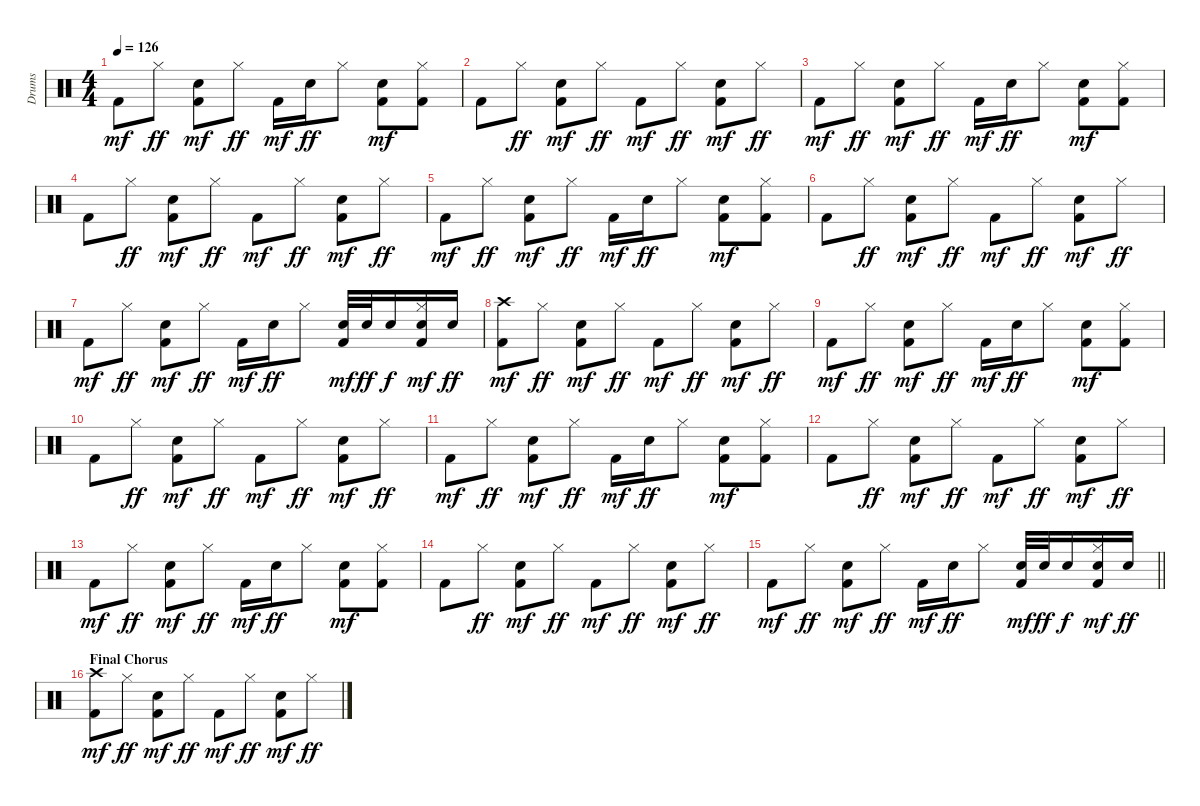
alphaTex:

\track ("Drums" "Drums") {instrument percussion}
\staff {score}
\articulation defaults
\ts (4 4)
\tempo 126
\clef neutral
\ks c "Kick (hit) 2".8{dy mf} "Hi-Hat (closed)".8{dy ff}
("Electric Snare (hit)" "Kick (hit) 2").8{dy mf} "Hi-Hat (closed)".8{dy ff} "Kick (hit) 2".16{dy mf} "Electric Snare (hit)".16{dy ff} "Hi-Hat (closed)".8 ("Electric Snare (hit)" "Kick (hit) 2").8{dy mf} ("Hi-Hat (closed)" "Kick (hit) 2").8 |
"Kick (hit) 2".8 "Hi-Hat (closed)".8{dy ff} ("Electric Snare (hit)" "Kick (hit) 2").8{dy mf} "Hi-Hat (closed)".8{dy ff} "Kick (hit) 2".8{dy mf} "Hi-Hat (closed)".8{dy ff} ("Electric Snare (hit)" "Kick (hit) 2").8{dy mf} "Hi-Hat (closed)".8{dy ff} |
"Kick (hit) 2".8{dy mf} "Hi-Hat (closed)".8{dy ff} ("Electric Snare (hit)" "Kick (hit) 2").8{dy mf} "Hi-Hat (closed)".8{dy ff} "Kick (hit) 2".16{dy mf} "Electric Snare (hit)".16{dy ff} "Hi-Hat (closed)".8 ("Electric Snare (hit)" "Kick (hit) 2").8{dy mf} ("Hi-Hat (closed)" "Kick (hit) 2").8 |
"Kick (hit) 2".8 "Hi-Hat (closed)".8{dy ff} ("Electric Snare (hit)" "Kick (hit) 2").8{dy mf} "Hi-Hat (closed)".8{dy ff} "Kick (hit) 2".8{dy mf} "Hi-Hat (closed)".8{dy ff} ("Electric Snare (hit)" "Kick (hit) 2").8{dy mf} "Hi-Hat (closed)".8{dy ff} |
"Kick (hit) 2".8{dy mf} "Hi-Hat (closed)".8{dy ff} ("Electric Snare (hit)" "Kick (hit) 2").8{dy mf} "Hi-Hat (closed)".8{dy ff} "Kick (hit) 2".16{dy mf} "Electric Snare (hit)".16{dy ff} "Hi-Hat (closed)".8 ("Electric Snare (hit)" "Kick (hit) 2").8{dy mf} ("Hi-Hat (closed)" "Kick (hit) 2").8 |
"Kick (hit) 2".8 "Hi-Hat (closed)".8{dy ff} ("Electric Snare (hit)" "Kick (hit) 2").8{dy mf} "Hi-Hat (closed)".8{dy ff} "Kick (hit) 2".8{dy mf} "Hi-Hat (closed)".8{dy ff} ("Electric Snare (hit)" "Kick (hit) 2").8{dy mf} "Hi-Hat (closed)".8{dy ff} |
"Kick (hit) 2".8{dy mf} "Hi-Hat (closed)".8{dy ff} ("Electric Snare (hit)" "Kick (hit) 2").8{dy mf} "Hi-Hat (closed)".8{dy ff} "Kick (hit) 2".16{dy mf} "Electric Snare (hit)".16{dy ff} "Hi-Hat (closed)".8 ("Electric Snare (hit)" "Kick (hit) 2").32{dy mf} "Electric Snare (hit)".32{dy ff} "Electric Snare (hit)".16{dy f} ("Hi-Hat (closed)" "Electric Snare (hit)" "Kick (hit) 2").16{dy mf} "Electric Snare (hit)".16{dy ff} |
("Crash high (hit)" "Kick (hit) 2").8{dy mf} "Hi-Hat (closed)".8{dy ff} ("Electric Snare (hit)" "Kick (hit) 2").8{dy mf} "Hi-Hat (closed)".8{dy ff} "Kick (hit) 2".8{dy mf} "Hi-Hat (closed)".8{dy ff} ("Electric Snare (hit)" "Kick (hit) 2").8{dy mf} "Hi-Hat (closed)".8{dy ff} |
"Kick (hit) 2".8{dy mf} "Hi-Hat (closed)".8{dy ff} ("Electric Snare (hit)" "Kick (hit) 2").8{dy mf} "Hi-Hat (closed)".8{dy ff} "Kick (hit) 2".16{dy mf} "Electric Snare (hit)".16{dy ff} "Hi-Hat (closed)".8 ("Electric Snare (hit)" "Kick (hit) 2").8{dy mf} ("Hi-Hat (closed)" "Kick (hit) 2").8 |
"Kick (hit) 2".8 "Hi-Hat (closed)".8{dy ff} ("Electric Snare (hit)" "Kick (hit) 2").8{dy mf} "Hi-Hat (closed)".8{dy ff} "Kick (hit) 2".8{dy mf} "Hi-Hat (closed)".8{dy ff} ("Electric Snare (hit)" "Kick (hit) 2").8{dy mf} "Hi-Hat (closed)".8{dy ff} |
"Kick (hit) 2".8{dy mf} "Hi-Hat (closed)".8{dy ff} ("Electric Snare (hit)" "Kick (hit) 2").8{dy mf} "Hi-Hat (closed)".8{dy ff} "Kick (hit) 2".16{dy mf} "Electric Snare (hit)".16{dy ff} "Hi-Hat (closed)".8 ("Electric Snare (hit)" "Kick (hit) 2").8{dy mf} ("Hi-Hat (closed)" "Kick (hit) 2").8 |
"Kick (hit) 2".8 "Hi-Hat (closed)".8{dy ff} ("Electric Snare (hit)" "Kick (hit) 2").8{dy mf} "Hi-Hat (closed)".8{dy ff} "Kick (hit) 2".8{dy mf} "Hi-Hat (closed)".8{dy ff} ("Electric Snare (hit)" "Kick (hit) 2").8{dy mf} "Hi-Hat (closed)".8{dy ff} |
"Kick (hit) 2".8{dy mf} "Hi-Hat (closed)".8{dy ff} ("Electric Snare (hit)" "Kick (hit) 2").8{dy mf} "Hi-Hat (closed)".8{dy ff} "Kick (hit) 2".16{dy mf} "Electric Snare (hit)".16{dy ff} "Hi-Hat (closed)".8 ("Electric Snare (hit)" "Kick (hit) 2").8{dy mf} ("Hi-Hat (closed)" "Kick (hit) 2").8 |
"Kick (hit) 2".8 "Hi-Hat (closed)".8{dy ff} ("Electric Snare (hit)" "Kick (hit) 2").8{dy mf} "Hi-Hat (closed)".8{dy ff} "Kick (hit) 2".8{dy mf} "Hi-Hat (closed)".8{dy ff} ("Electric Snare (hit)" "Kick (hit) 2").8{dy mf} "Hi-Hat (closed)".8{dy ff} |
\barLineRight lightlight "Kick (hit) 2".8{dy mf} "Hi-Hat (closed)".8{dy ff}
("Electric Snare (hit)" "Kick (hit) 2").8{dy mf} "Hi-Hat (closed)".8{dy ff} "Kick (hit) 2".16{dy mf} "Electric Snare (hit)".16{dy ff} "Hi-Hat (closed)".8 ("Electric Snare (hit)" "Kick (hit) 2").32{dy mf} "Electric Snare (hit)".32{dy ff} "Electric Snare (hit)".16{dy f} ("Hi-Hat (closed)" "Electric Snare (hit)" "Kick (hit) 2").16{dy mf} "Electric Snare (hit)".16{dy ff} |
\section ("" "Final Chorus")
("Crash high (hit)" "Kick (hit) 2").8{dy mf} "Hi-Hat (closed)".8{dy ff} ("Electric Snare (hit)" "Kick (hit) 2").8{dy mf} "Hi-Hat (closed)".8{dy ff} "Kick (hit) 2".8{dy mf} "Hi-Hat (closed)".8{dy ff} ("Electric Snare (hit)" "Kick (hit) 2").8{dy mf} "Hi-Hat (closed)".8{dy ff}
